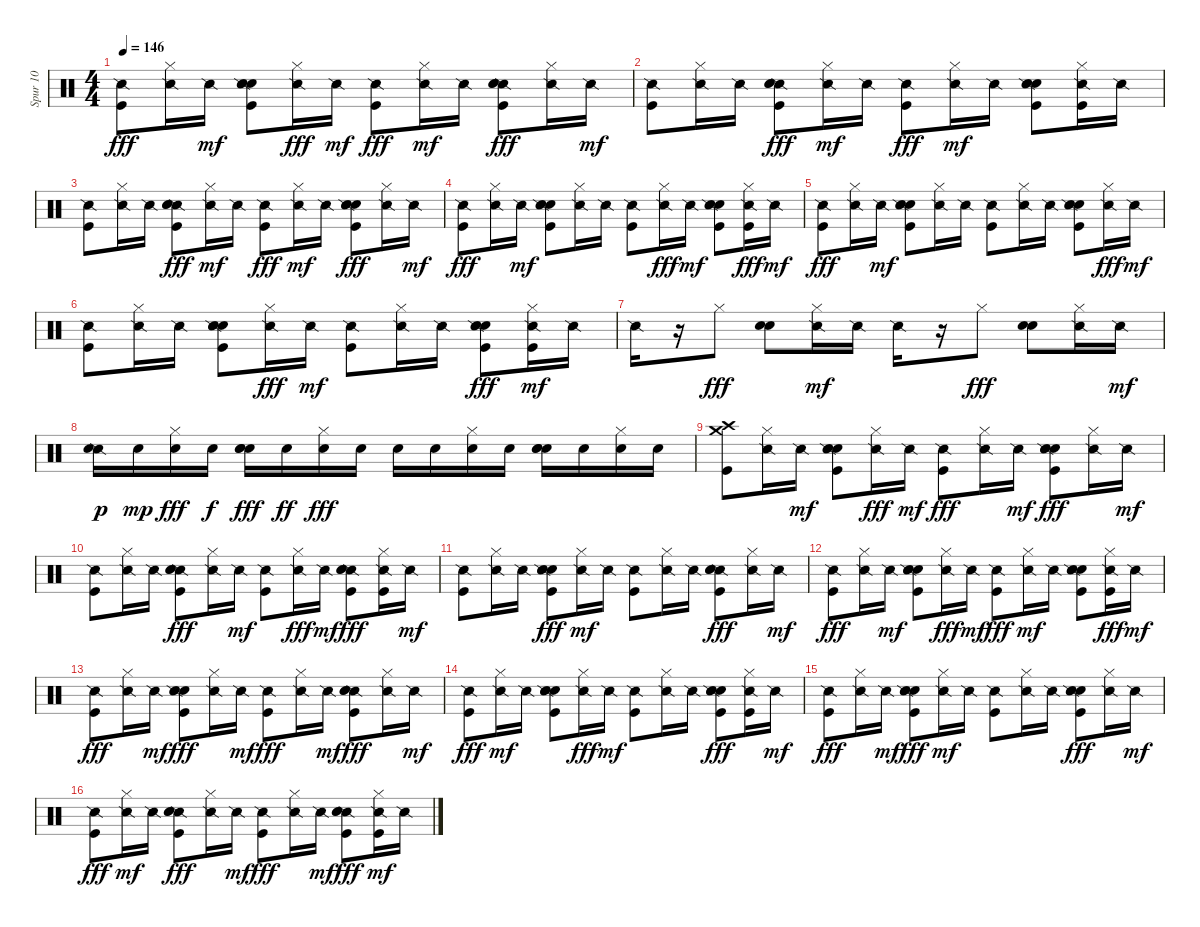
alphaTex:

\track ("Spur 10" "Spur 10") {instrument percussion}
\staff {score}
\articulation defaults
\ts (4 4)
\tempo 146
\clef neutral
\ks c
("Snare (side stick) 2" "Kick (hit)").8{dy fff} ("Snare (side stick) 2" "Hi-Hat (closed)").16 "Snare (side stick) 2".16{dy mf} ("Electric Snare (hit)" "Hand Clap (hit)" "Kick (hit)" "Snare (side stick) 2").8 ("Snare (side stick) 2" "Hi-Hat (closed)").16{dy fff} "Snare (side stick) 2".16{dy mf} ("Snare (side stick) 2" "Kick (hit)").8{dy fff} ("Hi-Hat (closed)" "Snare (side stick) 2").16{dy mf} "Snare (side stick) 2".16 ("Snare (side stick) 2" "Hand Clap (hit)" "Electric Snare (hit)" "Kick (hit)").8{dy fff} ("Snare (side stick) 2" "Hi-Hat (closed)").16 "Snare (side stick) 2".16{dy mf} |
("Kick (hit)" "Snare (side stick) 2").8 ("Hi-Hat (closed)" "Snare (side stick) 2").16 "Snare (side stick) 2".16 ("Snare (side stick) 2" "Hand Clap (hit)" "Kick (hit)" "Electric Snare (hit)").8{dy fff} ("Hi-Hat (closed)" "Snare (side stick) 2").16{dy mf} "Snare (side stick) 2".16 ("Snare (side stick) 2" "Kick (hit)").8{dy fff} ("Hi-Hat (closed)" "Snare (side stick) 2").16{dy mf} "Snare (side stick) 2".16 ("Hand Clap (hit)" "Kick (hit)" "Electric Snare (hit)" "Snare (side stick) 2").8 ("Hi-Hat (closed)" "Kick (hit)" "Snare (side stick) 2").16 "Snare (side stick) 2".16 |
("Kick (hit)" "Snare (side stick) 2").8 ("Hi-Hat (closed)" "Snare (side stick) 2").16 "Snare (side stick) 2".16 ("Snare (side stick) 2" "Hand Clap (hit)" "Electric Snare (hit)" "Kick (hit)").8{dy fff} ("Hi-Hat (closed)" "Snare (side stick) 2").16{dy mf} "Snare (side stick) 2".16 ("Snare (side stick) 2" "Kick (hit)").8{dy fff} ("Hi-Hat (closed)" "Snare (side stick) 2").16{dy mf} "Snare (side stick) 2".16 ("Electric Snare (hit)" "Hand Clap (hit)" "Snare (side stick) 2" "Kick (hit)").8{dy fff} ("Snare (side stick) 2" "Hi-Hat (closed)").16 "Snare (side stick) 2".16{dy mf} |
("Snare (side stick) 2" "Kick (hit)").8{dy fff} ("Snare (side stick) 2" "Hi-Hat (closed)").16 "Snare (side stick) 2".16{dy mf} ("Hand Clap (hit)" "Kick (hit)" "Electric Snare (hit)" "Snare (side stick) 2").8 ("Hi-Hat (closed)" "Snare (side stick) 2").16 "Snare (side stick) 2".16 ("Kick (hit)" "Snare (side stick) 2").8 ("Snare (side stick) 2" "Hi-Hat (closed)").16{dy fff} "Snare (side stick) 2".16{dy mf} ("Electric Snare (hit)" "Hand Clap (hit)" "Kick (hit)" "Snare (side stick) 2").8 ("Snare (side stick) 2" "Hi-Hat (closed)" "Kick (hit)").16{dy fff} "Snare (side stick) 2".16{dy mf} |
("Snare (side stick) 2" "Kick (hit)").8{dy fff} ("Snare (side stick) 2" "Hi-Hat (closed)").16 "Snare (side stick) 2".16{dy mf} ("Kick (hit)" "Electric Snare (hit)" "Hand Clap (hit)" "Snare (side stick) 2").8 ("Hi-Hat (closed)" "Snare (side stick) 2").16 "Snare (side stick) 2".16 ("Kick (hit)" "Snare (side stick) 2").8 ("Hi-Hat (closed)" "Snare (side stick) 2").16 "Snare (side stick) 2".16 ("Electric Snare (hit)" "Hand Clap (hit)" "Kick (hit)" "Snare (side stick) 2").8 ("Snare (side stick) 2" "Hi-Hat (closed)").16{dy fff} "Snare (side stick) 2".16{dy mf} |
("Kick (hit)" "Snare (side stick) 2").8 ("Hi-Hat (closed)" "Snare (side stick) 2").16 "Snare (side stick) 2".16 ("Kick (hit)" "Hand Clap (hit)" "Electric Snare (hit)" "Snare (side stick) 2").8 ("Snare (side stick) 2" "Hi-Hat (closed)").16{dy fff} "Snare (side stick) 2".16{dy mf} ("Kick (hit)" "Snare (side stick) 2").8 ("Hi-Hat (closed)" "Snare (side stick) 2").16 "Snare (side stick) 2".16 ("Hand Clap (hit)" "Electric Snare (hit)" "Snare (side stick) 2" "Kick (hit)").8{dy fff} ("Kick (hit)" "Hi-Hat (closed)" "Snare (side stick) 2").16{dy mf} "Snare (side stick) 2".16 |
"Snare (side stick) 2".16 r.16 "Hi-Hat (closed)".8{dy fff} ("Hand Clap (hit)" "Electric Snare (hit)").8 ("Hi-Hat (closed)" "Snare (side stick) 2").16{dy mf} "Snare (side stick) 2".16 "Snare (side stick) 2".16 r.16 "Hi-Hat (closed)".8{dy fff} ("Electric Snare (hit)" "Hand Clap (hit)").8 ("Snare (side stick) 2" "Hi-Hat (closed)").16 "Snare (side stick) 2".16{dy mf} |
("Snare (side stick) 2" "Snare (hit) 2").16{dy p} "Snare (hit) 2".16{dy mp} ("Snare (hit) 2" "Hi-Hat (closed)").16{dy fff} "Snare (hit) 2".16{dy f} ("Hand Clap (hit)" "Electric Snare (hit)" "Snare (hit) 2").16{dy fff} "Snare (hit) 2".16{dy ff} ("Snare (hit) 2" "Hi-Hat (closed)").16{dy fff} "Snare (hit) 2".16 "Snare (hit) 2".16 "Snare (hit) 2".16 ("Hi-Hat (closed)" "Snare (hit) 2").16 "Snare (hit) 2".16 ("Hand Clap (hit)" "Electric Snare (hit)" "Snare (hit) 2").16 "Snare (hit) 2".16 ("Snare (hit) 2" "Hi-Hat (closed)").16 "Snare (hit) 2".16 |
("Crash medium (hit)" "Crash high (hit)" "Kick (hit)").8 ("Snare (side stick) 2" "Hi-Hat (closed)").16 "Snare (side stick) 2".16{dy mf} ("Electric Snare (hit)" "Hand Clap (hit)" "Kick (hit)" "Snare (side stick) 2").8 ("Snare (side stick) 2" "Hi-Hat (closed)").16{dy fff} "Snare (side stick) 2".16{dy mf} ("Snare (side stick) 2" "Kick (hit)").8{dy fff} ("Snare (side stick) 2" "Hi-Hat (closed)").16 "Snare (side stick) 2".16{dy mf} ("Electric Snare (hit)" "Kick (hit)" "Snare (side stick) 2" "Hand Clap (hit)").8{dy fff} ("Snare (side stick) 2" "Hi-Hat (closed)").16 "Snare (side stick) 2".16{dy mf} |
("Kick (hit)" "Snare (side stick) 2").8 ("Hi-Hat (closed)" "Snare (side stick) 2").16 "Snare (side stick) 2".16 ("Snare (side stick) 2" "Kick (hit)" "Hand Clap (hit)" "Electric Snare (hit)").8{dy fff} ("Snare (side stick) 2" "Hi-Hat (closed)").16 "Snare (side stick) 2".16{dy mf} ("Kick (hit)" "Snare (side stick) 2").8 ("Snare (side stick) 2" "Hi-Hat (closed)").16{dy fff} "Snare (side stick) 2".16{dy mf} ("Snare (side stick) 2" "Electric Snare (hit)" "Kick (hit)" "Hand Clap (hit)").8{dy fff} ("Snare (side stick) 2" "Kick (hit)" "Hi-Hat (closed)").16 "Snare (side stick) 2".16{dy mf} |
("Kick (hit)" "Snare (side stick) 2").8 ("Hi-Hat (closed)" "Snare (side stick) 2").16 "Snare (side stick) 2".16 ("Electric Snare (hit)" "Snare (side stick) 2" "Kick (hit)" "Hand Clap (hit)").8{dy fff} ("Hi-Hat (closed)" "Snare (side stick) 2").16{dy mf} "Snare (side stick) 2".16 ("Kick (hit)" "Snare (side stick) 2").8 ("Hi-Hat (closed)" "Snare (side stick) 2").16 "Snare (side stick) 2".16 ("Snare (side stick) 2" "Electric Snare (hit)" "Kick (hit)" "Hand Clap (hit)").8{dy fff} ("Snare (side stick) 2" "Hi-Hat (closed)").16 "Snare (side stick) 2".16{dy mf} |
("Snare (side stick) 2" "Kick (hit)").8{dy fff} ("Snare (side stick) 2" "Hi-Hat (closed)").16 "Snare (side stick) 2".16{dy mf} ("Kick (hit)" "Hand Clap (hit)" "Snare (side stick) 2" "Electric Snare (hit)").8 ("Snare (side stick) 2" "Hi-Hat (closed)").16{dy fff} "Snare (side stick) 2".16{dy mf} ("Snare (side stick) 2" "Kick (hit)").8{dy fff} ("Hi-Hat (closed)" "Snare (side stick) 2").16{dy mf} "Snare (side stick) 2".16 ("Kick (hit)" "Electric Snare (hit)" "Hand Clap (hit)" "Snare (side stick) 2").8 ("Snare (side stick) 2" "Hi-Hat (closed)" "Kick (hit)").16{dy fff} "Snare (side stick) 2".16{dy mf} |
("Snare (side stick) 2" "Kick (hit)").8{dy fff} ("Snare (side stick) 2" "Hi-Hat (closed)").16 "Snare (side stick) 2".16{dy mf} ("Electric Snare (hit)" "Kick (hit)" "Snare (side stick) 2" "Hand Clap (hit)").8{dy fff} ("Snare (side stick) 2" "Hi-Hat (closed)").16 "Snare (side stick) 2".16{dy mf} ("Snare (side stick) 2" "Kick (hit)").8{dy fff} ("Snare (side stick) 2" "Hi-Hat (closed)").16 "Snare (side stick) 2".16{dy mf} ("Snare (side stick) 2" "Kick (hit)" "Electric Snare (hit)" "Hand Clap (hit)").8{dy fff} ("Snare (side stick) 2" "Hi-Hat (closed)").16 "Snare (side stick) 2".16{dy mf} |
("Snare (side stick) 2" "Kick (hit)").8{dy fff} ("Hi-Hat (closed)" "Snare (side stick) 2").16{dy mf} "Snare (side stick) 2".16 ("Kick (hit)" "Hand Clap (hit)" "Snare (side stick) 2" "Electric Snare (hit)").8 ("Snare (side stick) 2" "Hi-Hat (closed)").16{dy fff} "Snare (side stick) 2".16{dy mf} ("Kick (hit)" "Snare (side stick) 2").8 ("Hi-Hat (closed)" "Snare (side stick) 2").16 "Snare (side stick) 2".16 ("Hand Clap (hit)" "Snare (side stick) 2" "Kick (hit)" "Electric Snare (hit)").8{dy fff} ("Hi-Hat (closed)" "Snare (side stick) 2" "Kick (hit)").16 "Snare (side stick) 2".16{dy mf} |
("Snare (side stick) 2" "Kick (hit)").8{dy fff} ("Snare (side stick) 2" "Hi-Hat (closed)").16 "Snare (side stick) 2".16{dy mf} ("Electric Snare (hit)" "Snare (side stick) 2" "Kick (hit)" "Hand Clap (hit)").8{dy fff} ("Hi-Hat (closed)" "Snare (side stick) 2").16{dy mf} "Snare (side stick) 2".16 ("Kick (hit)" "Snare (side stick) 2").8 ("Hi-Hat (closed)" "Snare (side stick) 2").16 "Snare (side stick) 2".16 ("Hand Clap (hit)" "Snare (side stick) 2" "Kick (hit)" "Electric Snare (hit)").8{dy fff} ("Snare (side stick) 2" "Hi-Hat (closed)").16 "Snare (side stick) 2".16{dy mf} |
("Snare (side stick) 2" "Kick (hit)").8{dy fff} ("Hi-Hat (closed)" "Snare (side stick) 2").16{dy mf} "Snare (side stick) 2".16 ("Snare (side stick) 2" "Hand Clap (hit)" "Electric Snare (hit)" "Kick (hit)").8{dy fff} ("Snare (side stick) 2" "Hi-Hat (closed)").16 "Snare (side stick) 2".16{dy mf} ("Snare (side stick) 2" "Kick (hit)").8{dy fff} ("Snare (side stick) 2" "Hi-Hat (closed)").16 "Snare (side stick) 2".16{dy mf} ("Snare (side stick) 2" "Kick (hit)" "Electric Snare (hit)" "Hand Clap (hit)").8{dy fff} ("Kick (hit)" "Hi-Hat (closed)" "Snare (side stick) 2").16{dy mf} "Snare (side stick) 2".16
